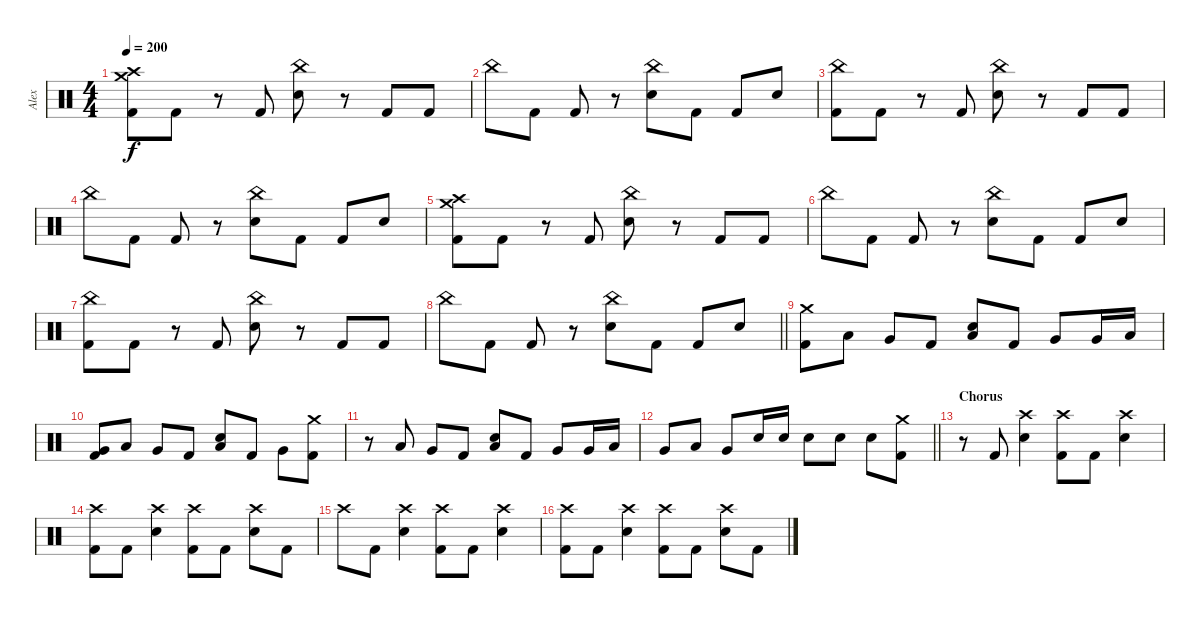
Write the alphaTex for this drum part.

\track ("Alex" "Alex") {instrument percussion}
\staff {score}
\articulation defaults
\ts (4 4)
\tempo 200
\clef neutral
\ks c
("Crash medium (hit)" "Crash high (hit)" "Kick (hit) 2").8{dy f} "Kick (hit) 2".8 r.8 "Kick (hit) 2".8 ("China (hit)" "Electric Snare (hit)").8 r.8 "Kick (hit) 2".8 "Kick (hit) 2".8 |
"China (hit)".8 "Kick (hit) 2".8 "Kick (hit) 2".8 r.8 ("China (hit)" "Electric Snare (hit)").8 "Kick (hit) 2".8 "Kick (hit) 2".8 "Electric Snare (hit)".8 |
("China (hit)" "Kick (hit) 2").8 "Kick (hit) 2".8 r.8 "Kick (hit) 2".8 ("China (hit)" "Electric Snare (hit)").8 r.8 "Kick (hit) 2".8 "Kick (hit) 2".8 |
"China (hit)".8 "Kick (hit) 2".8 "Kick (hit) 2".8 r.8 ("China (hit)" "Electric Snare (hit)").8 "Kick (hit) 2".8 "Kick (hit) 2".8 "Electric Snare (hit)".8 |
("Crash medium (hit)" "Crash high (hit)" "Kick (hit) 2").8 "Kick (hit) 2".8 r.8 "Kick (hit) 2".8 ("China (hit)" "Electric Snare (hit)").8 r.8 "Kick (hit) 2".8 "Kick (hit) 2".8 |
"China (hit)".8 "Kick (hit) 2".8 "Kick (hit) 2".8 r.8 ("China (hit)" "Electric Snare (hit)").8 "Kick (hit) 2".8 "Kick (hit) 2".8 "Electric Snare (hit)".8 |
("China (hit)" "Kick (hit) 2").8 "Kick (hit) 2".8 r.8 "Kick (hit) 2".8 ("China (hit)" "Electric Snare (hit)").8 r.8 "Kick (hit) 2".8 "Kick (hit) 2".8 |
\barLineRight lightlight "China (hit)".8 "Kick (hit) 2".8 "Kick (hit) 2".8
r.8 ("China (hit)" "Electric Snare (hit)").8 "Kick (hit) 2".8 "Kick (hit) 2".8 "Electric Snare (hit)".8 |
\section ("" "")
("Crash medium (hit)" "Kick (hit) 2").8 "Low Tom (hit)".8 "Very Low Tom (hit)".8 "Kick (hit) 2".8 ("Low Floor Tom (hit)" "Electric Snare (hit)").8 "Kick (hit) 2".8 "Very Low Tom (hit)".8 "Very Low Tom (hit)".16 "Low Tom (hit)".16 |
("Very Low Tom (hit)" "Kick (hit) 2").8 "Low Tom (hit)".8 "Very Low Tom (hit)".8 "Kick (hit) 2".8 ("Low Floor Tom (hit)" "Electric Snare (hit)").8 "Kick (hit) 2".8 "Very Low Tom (hit)".8 ("Crash medium (hit)" "Kick (hit) 2").8 |
r.8 "Low Tom (hit)".8 "Very Low Tom (hit)".8 "Kick (hit) 2".8 ("Low Floor Tom (hit)" "Electric Snare (hit)").8 "Kick (hit) 2".8 "Very Low Tom (hit)".8 "Very Low Tom (hit)".16 "Low Tom (hit)".16 |
\barLineRight lightlight "Very Low Tom (hit)".8 "Low Tom (hit)".8 "Very Low Tom (hit)".8 "Electric Snare (hit)".16 "Electric Snare (hit)".16 "Electric Snare (hit)".8 "Electric Snare (hit)".8 "Electric Snare (hit)".8
("Crash medium (hit)" "Kick (hit) 2").8 |
\section ("" "Chorus")
r.8 "Kick (hit) 2".8 ("Crash high (hit)" "Electric Snare (hit)").4 ("Crash high (hit)" "Kick (hit) 2").8 "Kick (hit) 2".8 ("Crash high (hit)" "Electric Snare (hit)").4 |
("Crash high (hit)" "Kick (hit) 2").8 "Kick (hit) 2".8 ("Crash high (hit)" "Electric Snare (hit)").4 ("Crash high (hit)" "Kick (hit) 2").8 "Kick (hit) 2".8 ("Crash high (hit)" "Electric Snare (hit)").8 "Kick (hit) 2".8 |
"Crash high (hit)".8 "Kick (hit) 2".8 ("Crash high (hit)" "Electric Snare (hit)").4 ("Crash high (hit)" "Kick (hit) 2").8 "Kick (hit) 2".8 ("Crash high (hit)" "Electric Snare (hit)").4 |
("Crash high (hit)" "Kick (hit) 2").8 "Kick (hit) 2".8 ("Crash high (hit)" "Electric Snare (hit)").4 ("Crash high (hit)" "Kick (hit) 2").8 "Kick (hit) 2".8 ("Crash high (hit)" "Electric Snare (hit)").8 "Kick (hit) 2".8
